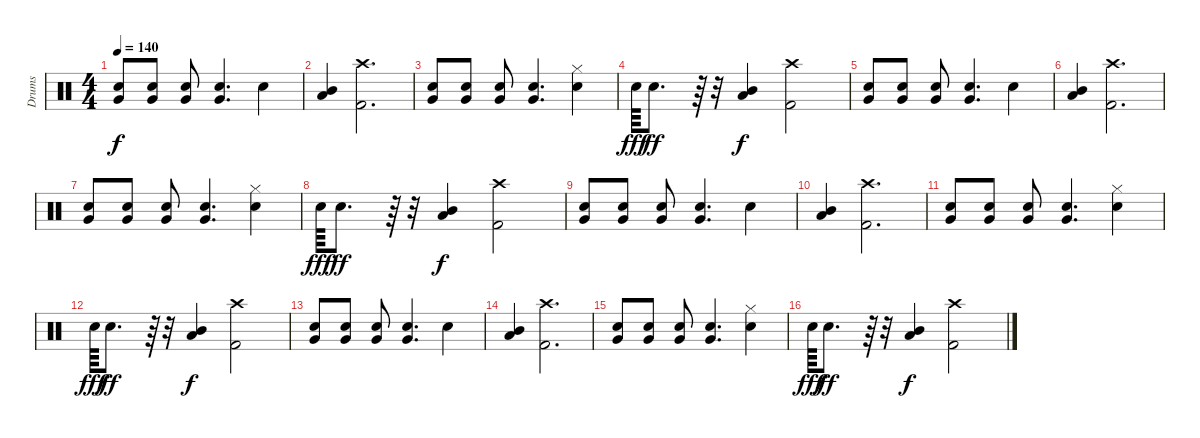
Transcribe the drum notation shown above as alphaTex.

\track ("Drums" "Drums") {instrument percussion}
\staff {score}
\articulation defaults
\ts (4 4)
\tempo 140
\clef neutral
\ks c
("Very Low Tom (hit)" "Snare (hit) 2").8{dy f} ("Very Low Tom (hit)" "Snare (hit) 2").8 ("Very Low Tom (hit)" "Snare (hit) 2").8 ("Very Low Tom (hit)" "Snare (hit) 2").4{d} "Snare (hit) 2".4 |
("Mid Tom (hit)" "Low Tom (hit)").4 ("Crash high (hit)" "Kick (hit) 2").2{d} |
("Very Low Tom (hit)" "Snare (hit) 2").8 ("Very Low Tom (hit)" "Snare (hit) 2").8 ("Very Low Tom (hit)" "Snare (hit) 2").8 ("Very Low Tom (hit)" "Snare (hit) 2").4{d} ("Hi-Hat (closed)" "Snare (hit) 2").4 |
"Snare (hit) 2".64{dy fff} "Snare (hit) 2".8{d dy ff} r.64 r.32 ("Mid Tom (hit)" "Low Tom (hit)").4{dy f} ("Crash high (hit)" "Kick (hit) 2").2 |
("Very Low Tom (hit)" "Snare (hit) 2").8 ("Very Low Tom (hit)" "Snare (hit) 2").8 ("Very Low Tom (hit)" "Snare (hit) 2").8 ("Very Low Tom (hit)" "Snare (hit) 2").4{d} "Snare (hit) 2".4 |
("Mid Tom (hit)" "Low Tom (hit)").4 ("Crash high (hit)" "Kick (hit) 2").2{d} |
("Very Low Tom (hit)" "Snare (hit) 2").8 ("Very Low Tom (hit)" "Snare (hit) 2").8 ("Very Low Tom (hit)" "Snare (hit) 2").8 ("Very Low Tom (hit)" "Snare (hit) 2").4{d} ("Hi-Hat (closed)" "Snare (hit) 2").4 |
"Snare (hit) 2".64{dy fff} "Snare (hit) 2".8{d dy ff} r.64 r.32 ("Mid Tom (hit)" "Low Tom (hit)").4{dy f} ("Crash high (hit)" "Kick (hit) 2").2 |
("Very Low Tom (hit)" "Snare (hit) 2").8 ("Very Low Tom (hit)" "Snare (hit) 2").8 ("Very Low Tom (hit)" "Snare (hit) 2").8 ("Very Low Tom (hit)" "Snare (hit) 2").4{d} "Snare (hit) 2".4 |
("Mid Tom (hit)" "Low Tom (hit)").4 ("Crash high (hit)" "Kick (hit) 2").2{d} |
("Very Low Tom (hit)" "Snare (hit) 2").8 ("Very Low Tom (hit)" "Snare (hit) 2").8 ("Very Low Tom (hit)" "Snare (hit) 2").8 ("Very Low Tom (hit)" "Snare (hit) 2").4{d} ("Hi-Hat (closed)" "Snare (hit) 2").4 |
"Snare (hit) 2".64{dy fff} "Snare (hit) 2".8{d dy ff} r.64 r.32 ("Mid Tom (hit)" "Low Tom (hit)").4{dy f} ("Crash high (hit)" "Kick (hit) 2").2 |
("Very Low Tom (hit)" "Snare (hit) 2").8 ("Very Low Tom (hit)" "Snare (hit) 2").8 ("Very Low Tom (hit)" "Snare (hit) 2").8 ("Very Low Tom (hit)" "Snare (hit) 2").4{d} "Snare (hit) 2".4 |
("Mid Tom (hit)" "Low Tom (hit)").4 ("Crash high (hit)" "Kick (hit) 2").2{d} |
("Very Low Tom (hit)" "Snare (hit) 2").8 ("Very Low Tom (hit)" "Snare (hit) 2").8 ("Very Low Tom (hit)" "Snare (hit) 2").8 ("Very Low Tom (hit)" "Snare (hit) 2").4{d} ("Hi-Hat (closed)" "Snare (hit) 2").4 |
"Snare (hit) 2".64{dy fff} "Snare (hit) 2".8{d dy ff} r.64 r.32 ("Mid Tom (hit)" "Low Tom (hit)").4{dy f} ("Crash high (hit)" "Kick (hit) 2").2
